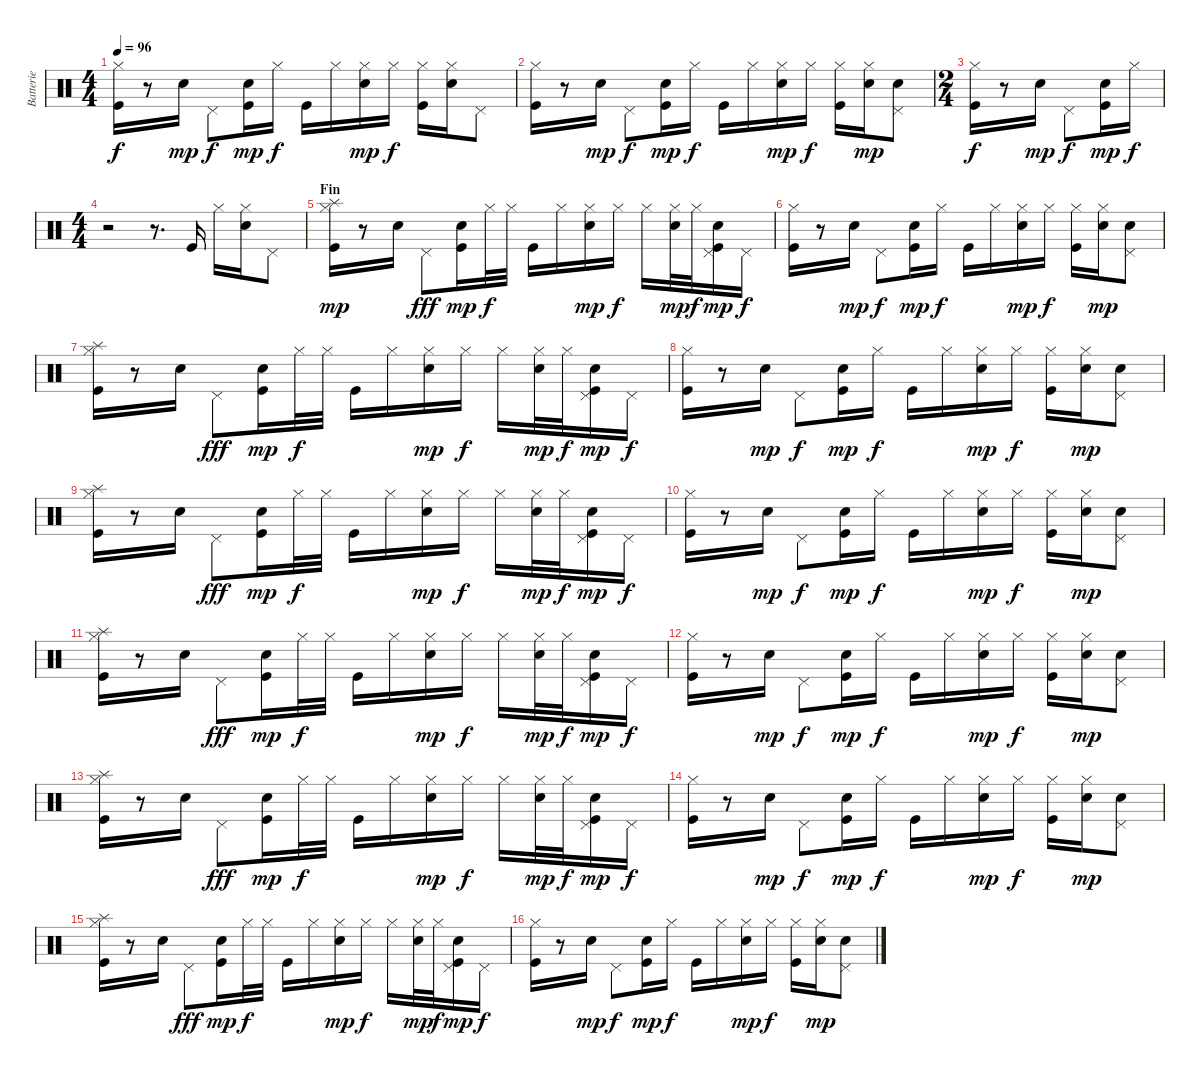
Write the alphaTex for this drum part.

\track ("Batterie" "Batterie") {instrument percussion}
\staff {score}
\articulation defaults
\ts (4 4)
\tempo 96
\clef neutral
\ks c
("Hi-Hat (closed)" "Kick (hit)").16{dy f} r.8 "Electric Snare (hit)".16{dy mp} "Pedal Hi-Hat (hit)".8{dy f} ("Electric Snare (hit)" "Kick (hit)").16{dy mp} "Hi-Hat (closed)".16{dy f} "Kick (hit)".16 "Hi-Hat (closed)".16 ("Hi-Hat (closed)" "Electric Snare (hit)").16{dy mp} "Hi-Hat (closed)".16{dy f} ("Hi-Hat (closed)" "Kick (hit)").16 ("Hi-Hat (closed)" "Electric Snare (hit)").16 "Pedal Hi-Hat (hit)".8 |
("Hi-Hat (closed)" "Kick (hit)").16 r.8 "Electric Snare (hit)".16{dy mp} "Pedal Hi-Hat (hit)".8{dy f} ("Electric Snare (hit)" "Kick (hit)").16{dy mp} "Hi-Hat (closed)".16{dy f} "Kick (hit)".16 "Hi-Hat (closed)".16 ("Hi-Hat (closed)" "Electric Snare (hit)").16{dy mp} "Hi-Hat (closed)".16{dy f} ("Hi-Hat (closed)" "Kick (hit)").16 ("Hi-Hat (closed)" "Electric Snare (hit)").16{dy mp} ("Pedal Hi-Hat (hit)" "Electric Snare (hit)").8 |
\ts (2 4)
("Hi-Hat (closed)" "Kick (hit)").16{dy f} r.8 "Electric Snare (hit)".16{dy mp} "Pedal Hi-Hat (hit)".8{dy f} ("Electric Snare (hit)" "Kick (hit)").16{dy mp} "Hi-Hat (closed)".16{dy f} |
\ts (4 4)
r.2 r.8{d} "Kick (hit)".16 "Hi-Hat (closed)".16 ("Hi-Hat (closed)" "Electric Snare (hit)").16 "Pedal Hi-Hat (hit)".8 |
\section ("" "Fin")
("Splash (hit)" "Hi-Hat (closed)" "Kick (hit)").16{dy mp} r.8 "Electric Snare (hit)".16 "Pedal Hi-Hat (hit)".8{dy fff} ("Electric Snare (hit)" "Kick (hit)").16{dy mp} "Hi-Hat (closed)".32{dy f} "Hi-Hat (closed)".32 "Kick (hit)".16 "Hi-Hat (closed)".16 ("Hi-Hat (closed)" "Electric Snare (hit)").16{dy mp} "Hi-Hat (closed)".16{dy f} "Hi-Hat (closed)".16 ("Hi-Hat (closed)" "Electric Snare (hit)").32{dy mp} "Hi-Hat (closed)".32{dy f} ("Pedal Hi-Hat (hit)" "Electric Snare (hit)" "Kick (hit)").16{dy mp} "Pedal Hi-Hat (hit)".16{dy f} |
("Hi-Hat (closed)" "Kick (hit)").16 r.8 "Electric Snare (hit)".16{dy mp} "Pedal Hi-Hat (hit)".8{dy f} ("Electric Snare (hit)" "Kick (hit)").16{dy mp} "Hi-Hat (closed)".16{dy f} "Kick (hit)".16 "Hi-Hat (closed)".16 ("Hi-Hat (closed)" "Electric Snare (hit)").16{dy mp} "Hi-Hat (closed)".16{dy f} ("Hi-Hat (closed)" "Kick (hit)").16 ("Hi-Hat (closed)" "Electric Snare (hit)").16{dy mp} ("Pedal Hi-Hat (hit)" "Electric Snare (hit)").8 |
("Splash (hit)" "Hi-Hat (closed)" "Kick (hit)").16 r.8 "Electric Snare (hit)".16 "Pedal Hi-Hat (hit)".8{dy fff} ("Electric Snare (hit)" "Kick (hit)").16{dy mp} "Hi-Hat (closed)".32{dy f} "Hi-Hat (closed)".32 "Kick (hit)".16 "Hi-Hat (closed)".16 ("Hi-Hat (closed)" "Electric Snare (hit)").16{dy mp} "Hi-Hat (closed)".16{dy f} "Hi-Hat (closed)".16 ("Hi-Hat (closed)" "Electric Snare (hit)").32{dy mp} "Hi-Hat (closed)".32{dy f} ("Pedal Hi-Hat (hit)" "Electric Snare (hit)" "Kick (hit)").16{dy mp} "Pedal Hi-Hat (hit)".16{dy f} |
("Hi-Hat (closed)" "Kick (hit)").16 r.8 "Electric Snare (hit)".16{dy mp} "Pedal Hi-Hat (hit)".8{dy f} ("Electric Snare (hit)" "Kick (hit)").16{dy mp} "Hi-Hat (closed)".16{dy f} "Kick (hit)".16 "Hi-Hat (closed)".16 ("Hi-Hat (closed)" "Electric Snare (hit)").16{dy mp} "Hi-Hat (closed)".16{dy f} ("Hi-Hat (closed)" "Kick (hit)").16 ("Hi-Hat (closed)" "Electric Snare (hit)").16{dy mp} ("Pedal Hi-Hat (hit)" "Electric Snare (hit)").8 |
("Splash (hit)" "Hi-Hat (closed)" "Kick (hit)").16 r.8 "Electric Snare (hit)".16 "Pedal Hi-Hat (hit)".8{dy fff} ("Electric Snare (hit)" "Kick (hit)").16{dy mp} "Hi-Hat (closed)".32{dy f} "Hi-Hat (closed)".32 "Kick (hit)".16 "Hi-Hat (closed)".16 ("Hi-Hat (closed)" "Electric Snare (hit)").16{dy mp} "Hi-Hat (closed)".16{dy f} "Hi-Hat (closed)".16 ("Hi-Hat (closed)" "Electric Snare (hit)").32{dy mp} "Hi-Hat (closed)".32{dy f} ("Pedal Hi-Hat (hit)" "Electric Snare (hit)" "Kick (hit)").16{dy mp} "Pedal Hi-Hat (hit)".16{dy f} |
("Hi-Hat (closed)" "Kick (hit)").16 r.8 "Electric Snare (hit)".16{dy mp} "Pedal Hi-Hat (hit)".8{dy f} ("Electric Snare (hit)" "Kick (hit)").16{dy mp} "Hi-Hat (closed)".16{dy f} "Kick (hit)".16 "Hi-Hat (closed)".16 ("Hi-Hat (closed)" "Electric Snare (hit)").16{dy mp} "Hi-Hat (closed)".16{dy f} ("Hi-Hat (closed)" "Kick (hit)").16 ("Hi-Hat (closed)" "Electric Snare (hit)").16{dy mp} ("Pedal Hi-Hat (hit)" "Electric Snare (hit)").8 |
("Splash (hit)" "Hi-Hat (closed)" "Kick (hit)").16 r.8 "Electric Snare (hit)".16 "Pedal Hi-Hat (hit)".8{dy fff} ("Electric Snare (hit)" "Kick (hit)").16{dy mp} "Hi-Hat (closed)".32{dy f} "Hi-Hat (closed)".32 "Kick (hit)".16 "Hi-Hat (closed)".16 ("Hi-Hat (closed)" "Electric Snare (hit)").16{dy mp} "Hi-Hat (closed)".16{dy f} "Hi-Hat (closed)".16 ("Hi-Hat (closed)" "Electric Snare (hit)").32{dy mp} "Hi-Hat (closed)".32{dy f} ("Pedal Hi-Hat (hit)" "Electric Snare (hit)" "Kick (hit)").16{dy mp} "Pedal Hi-Hat (hit)".16{dy f} |
("Hi-Hat (closed)" "Kick (hit)").16 r.8 "Electric Snare (hit)".16{dy mp} "Pedal Hi-Hat (hit)".8{dy f} ("Electric Snare (hit)" "Kick (hit)").16{dy mp} "Hi-Hat (closed)".16{dy f} "Kick (hit)".16 "Hi-Hat (closed)".16 ("Hi-Hat (closed)" "Electric Snare (hit)").16{dy mp} "Hi-Hat (closed)".16{dy f} ("Hi-Hat (closed)" "Kick (hit)").16 ("Hi-Hat (closed)" "Electric Snare (hit)").16{dy mp} ("Pedal Hi-Hat (hit)" "Electric Snare (hit)").8 |
("Splash (hit)" "Hi-Hat (closed)" "Kick (hit)").16 r.8 "Electric Snare (hit)".16 "Pedal Hi-Hat (hit)".8{dy fff} ("Electric Snare (hit)" "Kick (hit)").16{dy mp} "Hi-Hat (closed)".32{dy f} "Hi-Hat (closed)".32 "Kick (hit)".16 "Hi-Hat (closed)".16 ("Hi-Hat (closed)" "Electric Snare (hit)").16{dy mp} "Hi-Hat (closed)".16{dy f} "Hi-Hat (closed)".16 ("Hi-Hat (closed)" "Electric Snare (hit)").32{dy mp} "Hi-Hat (closed)".32{dy f} ("Pedal Hi-Hat (hit)" "Electric Snare (hit)" "Kick (hit)").16{dy mp} "Pedal Hi-Hat (hit)".16{dy f} |
("Hi-Hat (closed)" "Kick (hit)").16 r.8 "Electric Snare (hit)".16{dy mp} "Pedal Hi-Hat (hit)".8{dy f} ("Electric Snare (hit)" "Kick (hit)").16{dy mp} "Hi-Hat (closed)".16{dy f} "Kick (hit)".16 "Hi-Hat (closed)".16 ("Hi-Hat (closed)" "Electric Snare (hit)").16{dy mp} "Hi-Hat (closed)".16{dy f} ("Hi-Hat (closed)" "Kick (hit)").16 ("Hi-Hat (closed)" "Electric Snare (hit)").16{dy mp} ("Pedal Hi-Hat (hit)" "Electric Snare (hit)").8 |
("Splash (hit)" "Hi-Hat (closed)" "Kick (hit)").16 r.8 "Electric Snare (hit)".16 "Pedal Hi-Hat (hit)".8{dy fff} ("Electric Snare (hit)" "Kick (hit)").16{dy mp} "Hi-Hat (closed)".32{dy f} "Hi-Hat (closed)".32 "Kick (hit)".16 "Hi-Hat (closed)".16 ("Hi-Hat (closed)" "Electric Snare (hit)").16{dy mp} "Hi-Hat (closed)".16{dy f} "Hi-Hat (closed)".16 ("Hi-Hat (closed)" "Electric Snare (hit)").32{dy mp} "Hi-Hat (closed)".32{dy f} ("Pedal Hi-Hat (hit)" "Electric Snare (hit)" "Kick (hit)").16{dy mp} "Pedal Hi-Hat (hit)".16{dy f} |
("Hi-Hat (closed)" "Kick (hit)").16 r.8 "Electric Snare (hit)".16{dy mp} "Pedal Hi-Hat (hit)".8{dy f} ("Electric Snare (hit)" "Kick (hit)").16{dy mp} "Hi-Hat (closed)".16{dy f} "Kick (hit)".16 "Hi-Hat (closed)".16 ("Hi-Hat (closed)" "Electric Snare (hit)").16{dy mp} "Hi-Hat (closed)".16{dy f} ("Hi-Hat (closed)" "Kick (hit)").16 ("Hi-Hat (closed)" "Electric Snare (hit)").16{dy mp} ("Pedal Hi-Hat (hit)" "Electric Snare (hit)").8
